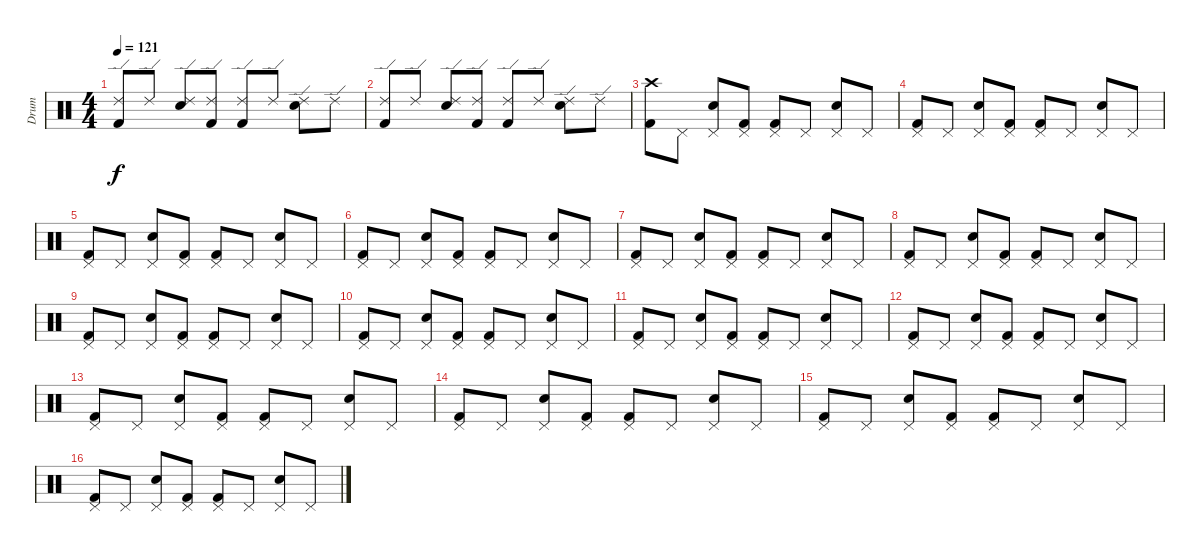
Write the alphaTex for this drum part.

\track ("Drum" "Drum") {instrument percussion}
\staff {score}
\articulation defaults
\ts (4 4)
\tempo 121
\clef neutral
\ks c
("Ride (edge) 2" "Kick (hit) 2").8{dy f} "Ride (edge) 2".8 ("Ride (edge) 2" "Snare (hit) 2").8 ("Ride (edge) 2" "Kick (hit) 2").8 ("Ride (edge) 2" "Kick (hit) 2").8 "Ride (edge) 2".8 ("Ride (edge) 2" "Snare (hit) 2").8 "Ride (edge) 2".8 |
("Ride (edge) 2" "Kick (hit) 2").8 "Ride (edge) 2".8 ("Ride (edge) 2" "Snare (hit) 2").8 ("Ride (edge) 2" "Kick (hit) 2").8 ("Ride (edge) 2" "Kick (hit) 2").8 "Ride (edge) 2".8 ("Ride (edge) 2" "Snare (hit) 2").8 "Ride (edge) 2".8 |
("Crash high (hit)" "Kick (hit) 2").8 "Pedal Hi-Hat (hit)".8 ("Pedal Hi-Hat (hit)" "Snare (hit) 2").8 ("Pedal Hi-Hat (hit)" "Kick (hit) 2").8 ("Pedal Hi-Hat (hit)" "Kick (hit) 2").8 "Pedal Hi-Hat (hit)".8 ("Pedal Hi-Hat (hit)" "Snare (hit) 2").8 "Pedal Hi-Hat (hit)".8 |
("Pedal Hi-Hat (hit)" "Kick (hit) 2").8 "Pedal Hi-Hat (hit)".8 ("Pedal Hi-Hat (hit)" "Snare (hit) 2").8 ("Pedal Hi-Hat (hit)" "Kick (hit) 2").8 ("Pedal Hi-Hat (hit)" "Kick (hit) 2").8 "Pedal Hi-Hat (hit)".8 ("Pedal Hi-Hat (hit)" "Snare (hit) 2").8 "Pedal Hi-Hat (hit)".8 |
("Pedal Hi-Hat (hit)" "Kick (hit) 2").8 "Pedal Hi-Hat (hit)".8 ("Pedal Hi-Hat (hit)" "Snare (hit) 2").8 ("Pedal Hi-Hat (hit)" "Kick (hit) 2").8 ("Pedal Hi-Hat (hit)" "Kick (hit) 2").8 "Pedal Hi-Hat (hit)".8 ("Pedal Hi-Hat (hit)" "Snare (hit) 2").8 "Pedal Hi-Hat (hit)".8 |
("Pedal Hi-Hat (hit)" "Kick (hit) 2").8 "Pedal Hi-Hat (hit)".8 ("Pedal Hi-Hat (hit)" "Snare (hit) 2").8 ("Pedal Hi-Hat (hit)" "Kick (hit) 2").8 ("Pedal Hi-Hat (hit)" "Kick (hit) 2").8 "Pedal Hi-Hat (hit)".8 ("Pedal Hi-Hat (hit)" "Snare (hit) 2").8 "Pedal Hi-Hat (hit)".8 |
("Pedal Hi-Hat (hit)" "Kick (hit) 2").8 "Pedal Hi-Hat (hit)".8 ("Pedal Hi-Hat (hit)" "Snare (hit) 2").8 ("Pedal Hi-Hat (hit)" "Kick (hit) 2").8 ("Pedal Hi-Hat (hit)" "Kick (hit) 2").8 "Pedal Hi-Hat (hit)".8 ("Pedal Hi-Hat (hit)" "Snare (hit) 2").8 "Pedal Hi-Hat (hit)".8 |
("Pedal Hi-Hat (hit)" "Kick (hit) 2").8 "Pedal Hi-Hat (hit)".8 ("Pedal Hi-Hat (hit)" "Snare (hit) 2").8 ("Pedal Hi-Hat (hit)" "Kick (hit) 2").8 ("Pedal Hi-Hat (hit)" "Kick (hit) 2").8 "Pedal Hi-Hat (hit)".8 ("Pedal Hi-Hat (hit)" "Snare (hit) 2").8 "Pedal Hi-Hat (hit)".8 |
("Pedal Hi-Hat (hit)" "Kick (hit) 2").8 "Pedal Hi-Hat (hit)".8 ("Pedal Hi-Hat (hit)" "Snare (hit) 2").8 ("Pedal Hi-Hat (hit)" "Kick (hit) 2").8 ("Pedal Hi-Hat (hit)" "Kick (hit) 2").8 "Pedal Hi-Hat (hit)".8 ("Pedal Hi-Hat (hit)" "Snare (hit) 2").8 "Pedal Hi-Hat (hit)".8 |
("Pedal Hi-Hat (hit)" "Kick (hit) 2").8 "Pedal Hi-Hat (hit)".8 ("Pedal Hi-Hat (hit)" "Snare (hit) 2").8 ("Pedal Hi-Hat (hit)" "Kick (hit) 2").8 ("Pedal Hi-Hat (hit)" "Kick (hit) 2").8 "Pedal Hi-Hat (hit)".8 ("Pedal Hi-Hat (hit)" "Snare (hit) 2").8 "Pedal Hi-Hat (hit)".8 |
("Pedal Hi-Hat (hit)" "Kick (hit) 2").8 "Pedal Hi-Hat (hit)".8 ("Pedal Hi-Hat (hit)" "Snare (hit) 2").8 ("Pedal Hi-Hat (hit)" "Kick (hit) 2").8 ("Pedal Hi-Hat (hit)" "Kick (hit) 2").8 "Pedal Hi-Hat (hit)".8 ("Pedal Hi-Hat (hit)" "Snare (hit) 2").8 "Pedal Hi-Hat (hit)".8 |
("Pedal Hi-Hat (hit)" "Kick (hit) 2").8 "Pedal Hi-Hat (hit)".8 ("Pedal Hi-Hat (hit)" "Snare (hit) 2").8 ("Pedal Hi-Hat (hit)" "Kick (hit) 2").8 ("Pedal Hi-Hat (hit)" "Kick (hit) 2").8 "Pedal Hi-Hat (hit)".8 ("Pedal Hi-Hat (hit)" "Snare (hit) 2").8 "Pedal Hi-Hat (hit)".8 |
("Pedal Hi-Hat (hit)" "Kick (hit) 2").8 "Pedal Hi-Hat (hit)".8 ("Pedal Hi-Hat (hit)" "Snare (hit) 2").8 ("Pedal Hi-Hat (hit)" "Kick (hit) 2").8 ("Pedal Hi-Hat (hit)" "Kick (hit) 2").8 "Pedal Hi-Hat (hit)".8 ("Pedal Hi-Hat (hit)" "Snare (hit) 2").8 "Pedal Hi-Hat (hit)".8 |
("Pedal Hi-Hat (hit)" "Kick (hit) 2").8 "Pedal Hi-Hat (hit)".8 ("Pedal Hi-Hat (hit)" "Snare (hit) 2").8 ("Pedal Hi-Hat (hit)" "Kick (hit) 2").8 ("Pedal Hi-Hat (hit)" "Kick (hit) 2").8 "Pedal Hi-Hat (hit)".8 ("Pedal Hi-Hat (hit)" "Snare (hit) 2").8 "Pedal Hi-Hat (hit)".8 |
("Pedal Hi-Hat (hit)" "Kick (hit) 2").8 "Pedal Hi-Hat (hit)".8 ("Pedal Hi-Hat (hit)" "Snare (hit) 2").8 ("Pedal Hi-Hat (hit)" "Kick (hit) 2").8 ("Pedal Hi-Hat (hit)" "Kick (hit) 2").8 "Pedal Hi-Hat (hit)".8 ("Pedal Hi-Hat (hit)" "Snare (hit) 2").8 "Pedal Hi-Hat (hit)".8 |
("Pedal Hi-Hat (hit)" "Kick (hit) 2").8 "Pedal Hi-Hat (hit)".8 ("Pedal Hi-Hat (hit)" "Snare (hit) 2").8 ("Pedal Hi-Hat (hit)" "Kick (hit) 2").8 ("Pedal Hi-Hat (hit)" "Kick (hit) 2").8 "Pedal Hi-Hat (hit)".8 ("Pedal Hi-Hat (hit)" "Snare (hit) 2").8 "Pedal Hi-Hat (hit)".8
